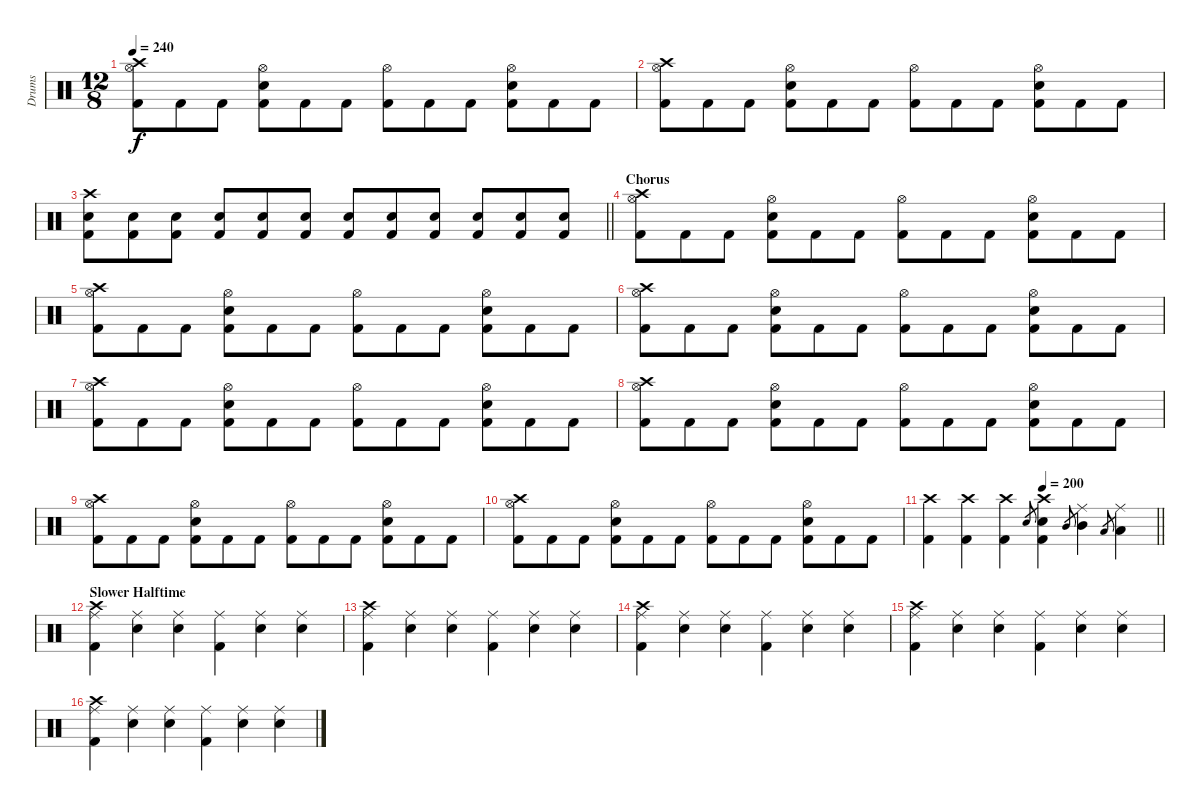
\track ("Drums" "Drums") {instrument percussion}
\staff {score}
\articulation defaults
\ts (12 8)
\tempo 240
\clef neutral
\ks c
("Crash high (hit)" "Hi-Hat (open)" "Kick (hit) 2").8{dy f} "Kick (hit) 2".8 "Kick (hit) 2".8 ("Hi-Hat (open)" "Snare (hit) 2" "Kick (hit) 2").8 "Kick (hit) 2".8 "Kick (hit) 2".8 ("Hi-Hat (open)" "Kick (hit) 2").8 "Kick (hit) 2".8 "Kick (hit) 2".8 ("Hi-Hat (open)" "Snare (hit) 2" "Kick (hit) 2").8 "Kick (hit) 2".8 "Kick (hit) 2".8 |
("Crash high (hit)" "Hi-Hat (open)" "Kick (hit) 2").8 "Kick (hit) 2".8 "Kick (hit) 2".8 ("Hi-Hat (open)" "Snare (hit) 2" "Kick (hit) 2").8 "Kick (hit) 2".8 "Kick (hit) 2".8 ("Hi-Hat (open)" "Kick (hit) 2").8 "Kick (hit) 2".8 "Kick (hit) 2".8 ("Hi-Hat (open)" "Snare (hit) 2" "Kick (hit) 2").8 "Kick (hit) 2".8 "Kick (hit) 2".8 |
\barLineRight lightlight
("Crash high (hit)" "Snare (hit) 2" "Kick (hit) 2").8 ("Snare (hit) 2" "Kick (hit) 2").8 ("Snare (hit) 2" "Kick (hit) 2").8 ("Snare (hit) 2" "Kick (hit) 2").8 ("Snare (hit) 2" "Kick (hit) 2").8 ("Snare (hit) 2" "Kick (hit) 2").8 ("Snare (hit) 2" "Kick (hit) 2").8 ("Snare (hit) 2" "Kick (hit) 2").8 ("Snare (hit) 2" "Kick (hit) 2").8 ("Snare (hit) 2" "Kick (hit) 2").8 ("Snare (hit) 2" "Kick (hit) 2").8 ("Snare (hit) 2" "Kick (hit) 2").8 |
\section ("" "Chorus")
("Crash high (hit)" "Hi-Hat (open)" "Kick (hit) 2").8 "Kick (hit) 2".8 "Kick (hit) 2".8 ("Hi-Hat (open)" "Snare (hit) 2" "Kick (hit) 2").8 "Kick (hit) 2".8 "Kick (hit) 2".8 ("Hi-Hat (open)" "Kick (hit) 2").8 "Kick (hit) 2".8 "Kick (hit) 2".8 ("Hi-Hat (open)" "Snare (hit) 2" "Kick (hit) 2").8 "Kick (hit) 2".8 "Kick (hit) 2".8 |
("Crash high (hit)" "Hi-Hat (open)" "Kick (hit) 2").8 "Kick (hit) 2".8 "Kick (hit) 2".8 ("Hi-Hat (open)" "Snare (hit) 2" "Kick (hit) 2").8 "Kick (hit) 2".8 "Kick (hit) 2".8 ("Hi-Hat (open)" "Kick (hit) 2").8 "Kick (hit) 2".8 "Kick (hit) 2".8 ("Hi-Hat (open)" "Snare (hit) 2" "Kick (hit) 2").8 "Kick (hit) 2".8 "Kick (hit) 2".8 |
("Crash high (hit)" "Hi-Hat (open)" "Kick (hit) 2").8 "Kick (hit) 2".8 "Kick (hit) 2".8 ("Hi-Hat (open)" "Snare (hit) 2" "Kick (hit) 2").8 "Kick (hit) 2".8 "Kick (hit) 2".8 ("Hi-Hat (open)" "Kick (hit) 2").8 "Kick (hit) 2".8 "Kick (hit) 2".8 ("Hi-Hat (open)" "Snare (hit) 2" "Kick (hit) 2").8 "Kick (hit) 2".8 "Kick (hit) 2".8 |
("Crash high (hit)" "Hi-Hat (open)" "Kick (hit) 2").8 "Kick (hit) 2".8 "Kick (hit) 2".8 ("Hi-Hat (open)" "Snare (hit) 2" "Kick (hit) 2").8 "Kick (hit) 2".8 "Kick (hit) 2".8 ("Hi-Hat (open)" "Kick (hit) 2").8 "Kick (hit) 2".8 "Kick (hit) 2".8 ("Hi-Hat (open)" "Snare (hit) 2" "Kick (hit) 2").8 "Kick (hit) 2".8 "Kick (hit) 2".8 |
("Crash high (hit)" "Hi-Hat (open)" "Kick (hit) 2").8 "Kick (hit) 2".8 "Kick (hit) 2".8 ("Hi-Hat (open)" "Snare (hit) 2" "Kick (hit) 2").8 "Kick (hit) 2".8 "Kick (hit) 2".8 ("Hi-Hat (open)" "Kick (hit) 2").8 "Kick (hit) 2".8 "Kick (hit) 2".8 ("Hi-Hat (open)" "Snare (hit) 2" "Kick (hit) 2").8 "Kick (hit) 2".8 "Kick (hit) 2".8 |
("Crash high (hit)" "Hi-Hat (open)" "Kick (hit) 2").8 "Kick (hit) 2".8 "Kick (hit) 2".8 ("Hi-Hat (open)" "Snare (hit) 2" "Kick (hit) 2").8 "Kick (hit) 2".8 "Kick (hit) 2".8 ("Hi-Hat (open)" "Kick (hit) 2").8 "Kick (hit) 2".8 "Kick (hit) 2".8 ("Hi-Hat (open)" "Snare (hit) 2" "Kick (hit) 2").8 "Kick (hit) 2".8 "Kick (hit) 2".8 |
("Crash high (hit)" "Hi-Hat (open)" "Kick (hit) 2").8 "Kick (hit) 2".8 "Kick (hit) 2".8 ("Hi-Hat (open)" "Snare (hit) 2" "Kick (hit) 2").8 "Kick (hit) 2".8 "Kick (hit) 2".8 ("Hi-Hat (open)" "Kick (hit) 2").8 "Kick (hit) 2".8 "Kick (hit) 2".8 ("Hi-Hat (open)" "Snare (hit) 2" "Kick (hit) 2").8 "Kick (hit) 2".8 "Kick (hit) 2".8 |
\tempo (200 0.5)
\barLineRight lightlight
("Crash high (hit)" "Kick (hit) 2").4 ("Crash high (hit)" "Kick (hit) 2").4 ("Crash high (hit)" "Kick (hit) 2").4 "Snare (hit) 2".8{gr} ("Crash high (hit)" "Snare (hit) 2" "Kick (hit) 2").4 "Mid Tom (hit)".8{gr} ("Ride (middle)" "Mid Tom (hit)").4 "Low Tom (hit)".8{gr} ("Ride (middle)" "Low Tom (hit)").4 |
\section ("" "Slower Halftime")
("Crash high (hit)" "Ride (middle)" "Kick (hit) 2").4 ("Ride (middle)" "Snare (hit) 2").4 ("Ride (middle)" "Snare (hit) 2").4 ("Ride (middle)" "Kick (hit) 2").4 ("Ride (middle)" "Snare (hit) 2").4 ("Ride (middle)" "Snare (hit) 2").4 |
("Crash high (hit)" "Ride (middle)" "Kick (hit) 2").4 ("Ride (middle)" "Snare (hit) 2").4 ("Ride (middle)" "Snare (hit) 2").4 ("Ride (middle)" "Kick (hit) 2").4 ("Ride (middle)" "Snare (hit) 2").4 ("Ride (middle)" "Snare (hit) 2").4 |
("Crash high (hit)" "Ride (middle)" "Kick (hit) 2").4 ("Ride (middle)" "Snare (hit) 2").4 ("Ride (middle)" "Snare (hit) 2").4 ("Ride (middle)" "Kick (hit) 2").4 ("Ride (middle)" "Snare (hit) 2").4 ("Ride (middle)" "Snare (hit) 2").4 |
("Crash high (hit)" "Ride (middle)" "Kick (hit) 2").4 ("Ride (middle)" "Snare (hit) 2").4 ("Ride (middle)" "Snare (hit) 2").4 ("Ride (middle)" "Kick (hit) 2").4 ("Ride (middle)" "Snare (hit) 2").4 ("Ride (middle)" "Snare (hit) 2").4 |
("Crash high (hit)" "Ride (middle)" "Kick (hit) 2").4 ("Ride (middle)" "Snare (hit) 2").4 ("Ride (middle)" "Snare (hit) 2").4 ("Ride (middle)" "Kick (hit) 2").4 ("Ride (middle)" "Snare (hit) 2").4 ("Ride (middle)" "Snare (hit) 2").4
